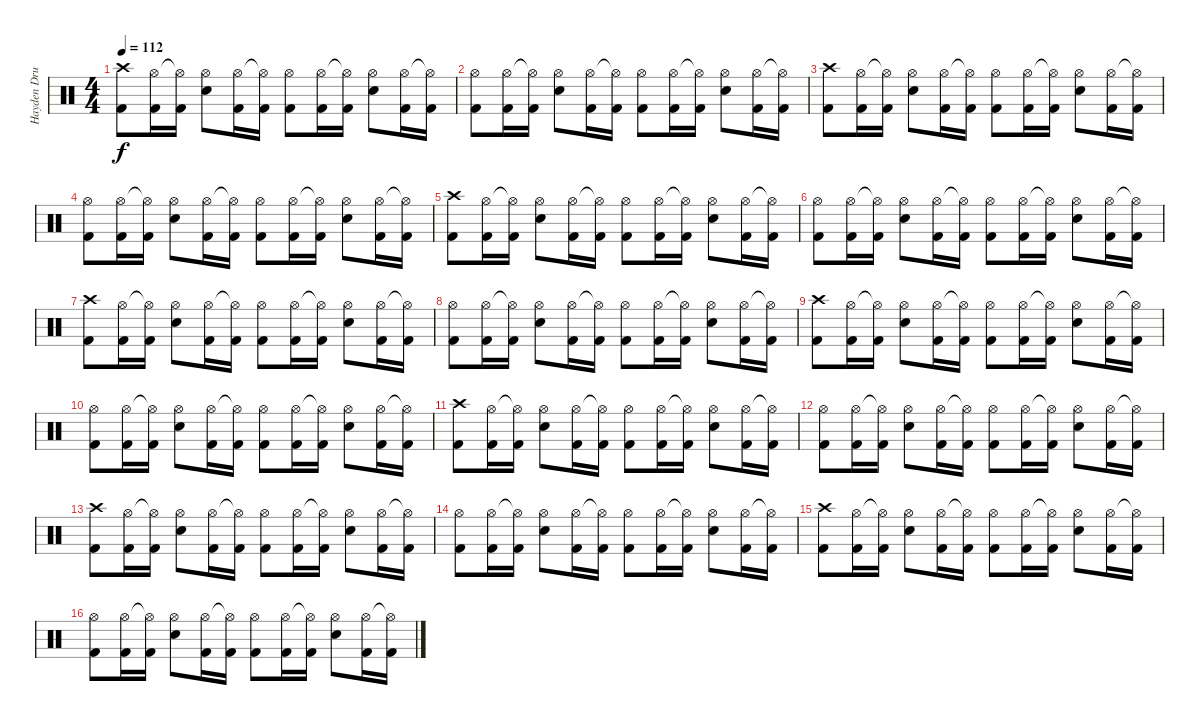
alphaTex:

\track ("Hayden Drums" "Hayden Dru") {instrument percussion}
\staff {score}
\articulation defaults
\ts (4 4)
\tempo 112
\clef neutral
\ks c
("Crash high (hit)" "Kick (hit) 2").8{dy f} ("Hi-Hat (open)" "Kick (hit) 2").16 ("Hi-Hat (open)"{t} "Kick (hit) 2").16 ("Hi-Hat (open)" "Electric Snare (hit)").8 ("Hi-Hat (open)" "Kick (hit) 2").16 ("Hi-Hat (open)"{t} "Kick (hit) 2").16 ("Hi-Hat (open)" "Kick (hit) 2").8 ("Hi-Hat (open)" "Kick (hit) 2").16 ("Hi-Hat (open)"{t} "Kick (hit) 2").16 ("Hi-Hat (open)" "Electric Snare (hit)").8 ("Hi-Hat (open)" "Kick (hit) 2").16 ("Hi-Hat (open)"{t} "Kick (hit) 2").16 |
("Hi-Hat (open)" "Kick (hit) 2").8 ("Hi-Hat (open)" "Kick (hit) 2").16 ("Hi-Hat (open)"{t} "Kick (hit) 2").16 ("Hi-Hat (open)" "Electric Snare (hit)").8 ("Hi-Hat (open)" "Kick (hit) 2").16 ("Hi-Hat (open)"{t} "Kick (hit) 2").16 ("Hi-Hat (open)" "Kick (hit) 2").8 ("Hi-Hat (open)" "Kick (hit) 2").16 ("Hi-Hat (open)"{t} "Kick (hit) 2").16 ("Hi-Hat (open)" "Electric Snare (hit)").8 ("Hi-Hat (open)" "Kick (hit) 2").16 ("Hi-Hat (open)"{t} "Kick (hit) 2").16 |
("Crash high (hit)" "Kick (hit) 2").8 ("Hi-Hat (open)" "Kick (hit) 2").16 ("Hi-Hat (open)"{t} "Kick (hit) 2").16 ("Hi-Hat (open)" "Electric Snare (hit)").8 ("Hi-Hat (open)" "Kick (hit) 2").16 ("Hi-Hat (open)"{t} "Kick (hit) 2").16 ("Hi-Hat (open)" "Kick (hit) 2").8 ("Hi-Hat (open)" "Kick (hit) 2").16 ("Hi-Hat (open)"{t} "Kick (hit) 2").16 ("Hi-Hat (open)" "Electric Snare (hit)").8 ("Hi-Hat (open)" "Kick (hit) 2").16 ("Hi-Hat (open)"{t} "Kick (hit) 2").16 |
("Hi-Hat (open)" "Kick (hit) 2").8 ("Hi-Hat (open)" "Kick (hit) 2").16 ("Hi-Hat (open)"{t} "Kick (hit) 2").16 ("Hi-Hat (open)" "Electric Snare (hit)").8 ("Hi-Hat (open)" "Kick (hit) 2").16 ("Hi-Hat (open)"{t} "Kick (hit) 2").16 ("Hi-Hat (open)" "Kick (hit) 2").8 ("Hi-Hat (open)" "Kick (hit) 2").16 ("Hi-Hat (open)"{t} "Kick (hit) 2").16 ("Hi-Hat (open)" "Electric Snare (hit)").8 ("Hi-Hat (open)" "Kick (hit) 2").16 ("Hi-Hat (open)"{t} "Kick (hit) 2").16 |
("Crash high (hit)" "Kick (hit) 2").8 ("Hi-Hat (open)" "Kick (hit) 2").16 ("Hi-Hat (open)"{t} "Kick (hit) 2").16 ("Hi-Hat (open)" "Electric Snare (hit)").8 ("Hi-Hat (open)" "Kick (hit) 2").16 ("Hi-Hat (open)"{t} "Kick (hit) 2").16 ("Hi-Hat (open)" "Kick (hit) 2").8 ("Hi-Hat (open)" "Kick (hit) 2").16 ("Hi-Hat (open)"{t} "Kick (hit) 2").16 ("Hi-Hat (open)" "Electric Snare (hit)").8 ("Hi-Hat (open)" "Kick (hit) 2").16 ("Hi-Hat (open)"{t} "Kick (hit) 2").16 |
("Hi-Hat (open)" "Kick (hit) 2").8 ("Hi-Hat (open)" "Kick (hit) 2").16 ("Hi-Hat (open)"{t} "Kick (hit) 2").16 ("Hi-Hat (open)" "Electric Snare (hit)").8 ("Hi-Hat (open)" "Kick (hit) 2").16 ("Hi-Hat (open)"{t} "Kick (hit) 2").16 ("Hi-Hat (open)" "Kick (hit) 2").8 ("Hi-Hat (open)" "Kick (hit) 2").16 ("Hi-Hat (open)"{t} "Kick (hit) 2").16 ("Hi-Hat (open)" "Electric Snare (hit)").8 ("Hi-Hat (open)" "Kick (hit) 2").16 ("Hi-Hat (open)"{t} "Kick (hit) 2").16 |
("Crash high (hit)" "Kick (hit) 2").8 ("Hi-Hat (open)" "Kick (hit) 2").16 ("Hi-Hat (open)"{t} "Kick (hit) 2").16 ("Hi-Hat (open)" "Electric Snare (hit)").8 ("Hi-Hat (open)" "Kick (hit) 2").16 ("Hi-Hat (open)"{t} "Kick (hit) 2").16 ("Hi-Hat (open)" "Kick (hit) 2").8 ("Hi-Hat (open)" "Kick (hit) 2").16 ("Hi-Hat (open)"{t} "Kick (hit) 2").16 ("Hi-Hat (open)" "Electric Snare (hit)").8 ("Hi-Hat (open)" "Kick (hit) 2").16 ("Hi-Hat (open)"{t} "Kick (hit) 2").16 |
("Hi-Hat (open)" "Kick (hit) 2").8 ("Hi-Hat (open)" "Kick (hit) 2").16 ("Hi-Hat (open)"{t} "Kick (hit) 2").16 ("Hi-Hat (open)" "Electric Snare (hit)").8 ("Hi-Hat (open)" "Kick (hit) 2").16 ("Hi-Hat (open)"{t} "Kick (hit) 2").16 ("Hi-Hat (open)" "Kick (hit) 2").8 ("Hi-Hat (open)" "Kick (hit) 2").16 ("Hi-Hat (open)"{t} "Kick (hit) 2").16 ("Hi-Hat (open)" "Electric Snare (hit)").8 ("Hi-Hat (open)" "Kick (hit) 2").16 ("Hi-Hat (open)"{t} "Kick (hit) 2").16 |
("Crash high (hit)" "Kick (hit) 2").8 ("Hi-Hat (open)" "Kick (hit) 2").16 ("Hi-Hat (open)"{t} "Kick (hit) 2").16 ("Hi-Hat (open)" "Electric Snare (hit)").8 ("Hi-Hat (open)" "Kick (hit) 2").16 ("Hi-Hat (open)"{t} "Kick (hit) 2").16 ("Hi-Hat (open)" "Kick (hit) 2").8 ("Hi-Hat (open)" "Kick (hit) 2").16 ("Hi-Hat (open)"{t} "Kick (hit) 2").16 ("Hi-Hat (open)" "Electric Snare (hit)").8 ("Hi-Hat (open)" "Kick (hit) 2").16 ("Hi-Hat (open)"{t} "Kick (hit) 2").16 |
("Hi-Hat (open)" "Kick (hit) 2").8 ("Hi-Hat (open)" "Kick (hit) 2").16 ("Hi-Hat (open)"{t} "Kick (hit) 2").16 ("Hi-Hat (open)" "Electric Snare (hit)").8 ("Hi-Hat (open)" "Kick (hit) 2").16 ("Hi-Hat (open)"{t} "Kick (hit) 2").16 ("Hi-Hat (open)" "Kick (hit) 2").8 ("Hi-Hat (open)" "Kick (hit) 2").16 ("Hi-Hat (open)"{t} "Kick (hit) 2").16 ("Hi-Hat (open)" "Electric Snare (hit)").8 ("Hi-Hat (open)" "Kick (hit) 2").16 ("Hi-Hat (open)"{t} "Kick (hit) 2").16 |
("Crash high (hit)" "Kick (hit) 2").8 ("Hi-Hat (open)" "Kick (hit) 2").16 ("Hi-Hat (open)"{t} "Kick (hit) 2").16 ("Hi-Hat (open)" "Electric Snare (hit)").8 ("Hi-Hat (open)" "Kick (hit) 2").16 ("Hi-Hat (open)"{t} "Kick (hit) 2").16 ("Hi-Hat (open)" "Kick (hit) 2").8 ("Hi-Hat (open)" "Kick (hit) 2").16 ("Hi-Hat (open)"{t} "Kick (hit) 2").16 ("Hi-Hat (open)" "Electric Snare (hit)").8 ("Hi-Hat (open)" "Kick (hit) 2").16 ("Hi-Hat (open)"{t} "Kick (hit) 2").16 |
("Hi-Hat (open)" "Kick (hit) 2").8 ("Hi-Hat (open)" "Kick (hit) 2").16 ("Hi-Hat (open)"{t} "Kick (hit) 2").16 ("Hi-Hat (open)" "Electric Snare (hit)").8 ("Hi-Hat (open)" "Kick (hit) 2").16 ("Hi-Hat (open)"{t} "Kick (hit) 2").16 ("Hi-Hat (open)" "Kick (hit) 2").8 ("Hi-Hat (open)" "Kick (hit) 2").16 ("Hi-Hat (open)"{t} "Kick (hit) 2").16 ("Hi-Hat (open)" "Electric Snare (hit)").8 ("Hi-Hat (open)" "Kick (hit) 2").16 ("Hi-Hat (open)"{t} "Kick (hit) 2").16 |
("Crash high (hit)" "Kick (hit) 2").8 ("Hi-Hat (open)" "Kick (hit) 2").16 ("Hi-Hat (open)"{t} "Kick (hit) 2").16 ("Hi-Hat (open)" "Electric Snare (hit)").8 ("Hi-Hat (open)" "Kick (hit) 2").16 ("Hi-Hat (open)"{t} "Kick (hit) 2").16 ("Hi-Hat (open)" "Kick (hit) 2").8 ("Hi-Hat (open)" "Kick (hit) 2").16 ("Hi-Hat (open)"{t} "Kick (hit) 2").16 ("Hi-Hat (open)" "Electric Snare (hit)").8 ("Hi-Hat (open)" "Kick (hit) 2").16 ("Hi-Hat (open)"{t} "Kick (hit) 2").16 |
("Hi-Hat (open)" "Kick (hit) 2").8 ("Hi-Hat (open)" "Kick (hit) 2").16 ("Hi-Hat (open)"{t} "Kick (hit) 2").16 ("Hi-Hat (open)" "Electric Snare (hit)").8 ("Hi-Hat (open)" "Kick (hit) 2").16 ("Hi-Hat (open)"{t} "Kick (hit) 2").16 ("Hi-Hat (open)" "Kick (hit) 2").8 ("Hi-Hat (open)" "Kick (hit) 2").16 ("Hi-Hat (open)"{t} "Kick (hit) 2").16 ("Hi-Hat (open)" "Electric Snare (hit)").8 ("Hi-Hat (open)" "Kick (hit) 2").16 ("Hi-Hat (open)"{t} "Kick (hit) 2").16 |
("Crash high (hit)" "Kick (hit) 2").8 ("Hi-Hat (open)" "Kick (hit) 2").16 ("Hi-Hat (open)"{t} "Kick (hit) 2").16 ("Hi-Hat (open)" "Electric Snare (hit)").8 ("Hi-Hat (open)" "Kick (hit) 2").16 ("Hi-Hat (open)"{t} "Kick (hit) 2").16 ("Hi-Hat (open)" "Kick (hit) 2").8 ("Hi-Hat (open)" "Kick (hit) 2").16 ("Hi-Hat (open)"{t} "Kick (hit) 2").16 ("Hi-Hat (open)" "Electric Snare (hit)").8 ("Hi-Hat (open)" "Kick (hit) 2").16 ("Hi-Hat (open)"{t} "Kick (hit) 2").16 |
("Hi-Hat (open)" "Kick (hit) 2").8 ("Hi-Hat (open)" "Kick (hit) 2").16 ("Hi-Hat (open)"{t} "Kick (hit) 2").16 ("Hi-Hat (open)" "Electric Snare (hit)").8 ("Hi-Hat (open)" "Kick (hit) 2").16 ("Hi-Hat (open)"{t} "Kick (hit) 2").16 ("Hi-Hat (open)" "Kick (hit) 2").8 ("Hi-Hat (open)" "Kick (hit) 2").16 ("Hi-Hat (open)"{t} "Kick (hit) 2").16 ("Hi-Hat (open)" "Electric Snare (hit)").8 ("Hi-Hat (open)" "Kick (hit) 2").16 ("Hi-Hat (open)"{t} "Kick (hit) 2").16
